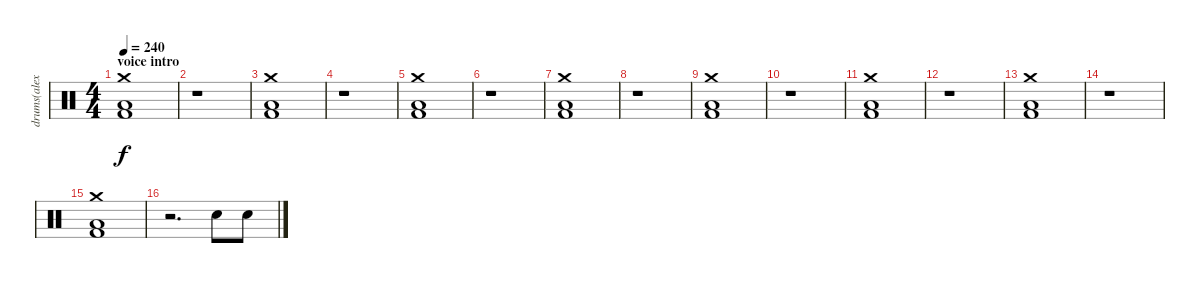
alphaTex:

\track ("drums(alex holzshwart)" "drums(alex") {instrument percussion}
\staff {score}
\articulation defaults
\ts (4 4)
\section ("" "voice intro")
\tempo 240
\clef neutral
\ks c
("Crash medium (hit)" "Low Floor Tom (hit)" "Kick (hit) 2").1{dy f} |
r.1 |
("Crash medium (hit)" "Low Floor Tom (hit)" "Kick (hit) 2").1 |
r.1 |
("Crash medium (hit)" "Low Floor Tom (hit)" "Kick (hit) 2").1 |
r.1 |
("Crash medium (hit)" "Low Floor Tom (hit)" "Kick (hit) 2").1 |
r.1 |
("Crash medium (hit)" "Low Floor Tom (hit)" "Kick (hit) 2").1 |
r.1 |
("Crash medium (hit)" "Low Floor Tom (hit)" "Kick (hit) 2").1 |
r.1 |
("Crash medium (hit)" "Low Floor Tom (hit)" "Kick (hit) 2").1 |
r.1 |
("Crash medium (hit)" "Low Floor Tom (hit)" "Kick (hit) 2").1 |
r.2{d} "Electric Snare (hit)".8 "Electric Snare (hit)".8
